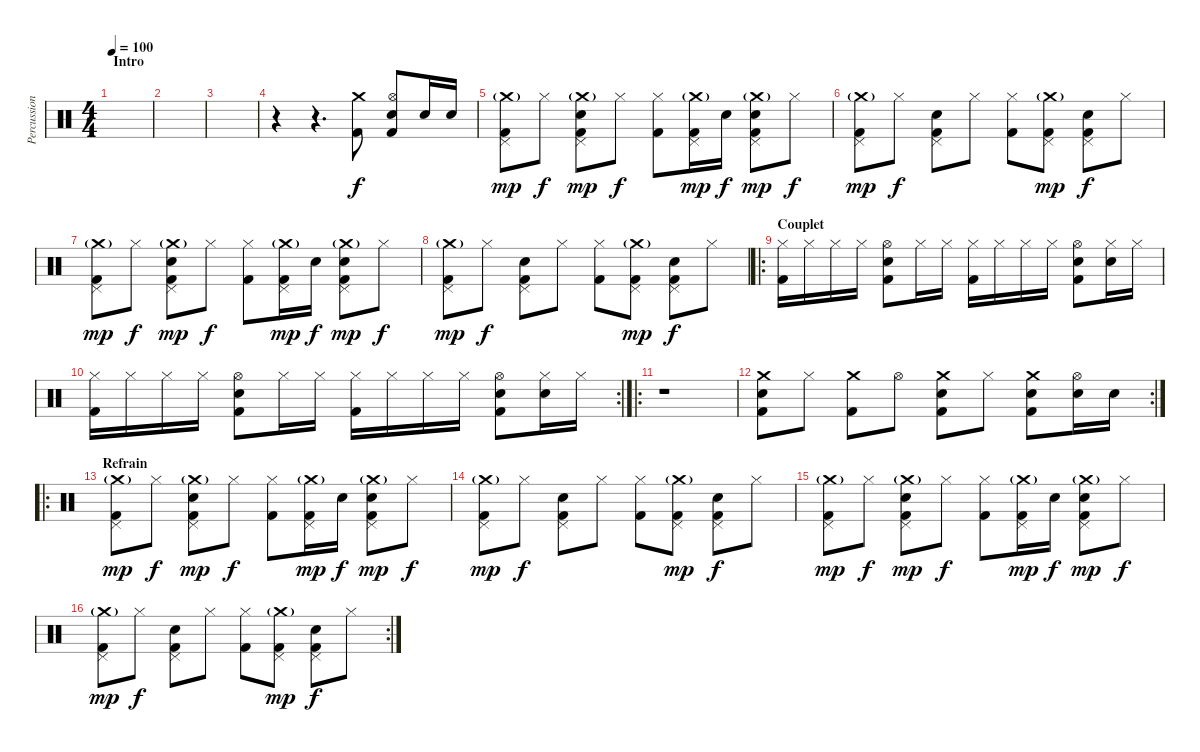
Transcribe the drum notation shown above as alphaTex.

\track ("Percussions" "Percussion") {instrument percussion}
\staff {score}
\articulation defaults
\ts (4 4)
\section ("" "Intro")
\tempo 100
\clef neutral
\ks c
|
|
|
r.4 r.4{d} ("Crash medium (hit)" "Kick (hit) 2").8 ("Hi-Hat (open)" "Electric Snare (hit)" "Kick (hit) 2").8 "Electric Snare (hit)".16 "Electric Snare (hit)".16 |
("Crash medium (hit)"{g} "Pedal Hi-Hat (hit)" "Kick (hit) 2").8{dy mp} "Hi-Hat (closed)".8{dy f} ("Crash medium (hit)"{g} "Pedal Hi-Hat (hit)" "Electric Snare (hit)" "Kick (hit) 2").8{dy mp} "Hi-Hat (closed)".8{dy f} ("Hi-Hat (closed)" "Kick (hit) 2").8 ("Crash medium (hit)"{g} "Pedal Hi-Hat (hit)" "Kick (hit) 2").16{dy mp} "Electric Snare (hit)".16{dy f} ("Crash medium (hit)"{g} "Pedal Hi-Hat (hit)" "Electric Snare (hit)" "Kick (hit) 2").8{dy mp} "Hi-Hat (closed)".8{dy f} |
("Crash medium (hit)"{g} "Pedal Hi-Hat (hit)" "Kick (hit) 2").8{dy mp} "Hi-Hat (closed)".8{dy f} ("Pedal Hi-Hat (hit)" "Electric Snare (hit)" "Kick (hit) 2").8 "Hi-Hat (closed)".8 ("Hi-Hat (closed)" "Kick (hit) 2").8 ("Crash medium (hit)"{g} "Pedal Hi-Hat (hit)" "Kick (hit) 2").8{dy mp} ("Pedal Hi-Hat (hit)" "Electric Snare (hit)" "Kick (hit) 2").8{dy f} "Hi-Hat (closed)".8 |
("Crash medium (hit)"{g} "Pedal Hi-Hat (hit)" "Kick (hit) 2").8{dy mp} "Hi-Hat (closed)".8{dy f} ("Crash medium (hit)"{g} "Pedal Hi-Hat (hit)" "Electric Snare (hit)" "Kick (hit) 2").8{dy mp} "Hi-Hat (closed)".8{dy f} ("Hi-Hat (closed)" "Kick (hit) 2").8 ("Crash medium (hit)"{g} "Pedal Hi-Hat (hit)" "Kick (hit) 2").16{dy mp} "Electric Snare (hit)".16{dy f} ("Crash medium (hit)"{g} "Pedal Hi-Hat (hit)" "Electric Snare (hit)" "Kick (hit) 2").8{dy mp} "Hi-Hat (closed)".8{dy f} |
("Crash medium (hit)"{g} "Pedal Hi-Hat (hit)" "Kick (hit) 2").8{dy mp} "Hi-Hat (closed)".8{dy f} ("Pedal Hi-Hat (hit)" "Electric Snare (hit)" "Kick (hit) 2").8 "Hi-Hat (closed)".8 ("Hi-Hat (closed)" "Kick (hit) 2").8 ("Crash medium (hit)"{g} "Pedal Hi-Hat (hit)" "Kick (hit) 2").8{dy mp} ("Pedal Hi-Hat (hit)" "Electric Snare (hit)" "Kick (hit) 2").8{dy f} "Hi-Hat (closed)".8 |
\ro
\section ("" "Couplet")
("Hi-Hat (closed)" "Kick (hit) 2").16 "Hi-Hat (closed)".16 "Hi-Hat (closed)".16 "Hi-Hat (closed)".16 ("Hi-Hat (open)" "Snare (hit) 2" "Kick (hit) 2").8 "Hi-Hat (closed)".16 "Hi-Hat (closed)".16 ("Hi-Hat (closed)" "Kick (hit) 2").16 "Hi-Hat (closed)".16 "Hi-Hat (closed)".16 "Hi-Hat (closed)".16 ("Hi-Hat (open)" "Snare (hit) 2" "Kick (hit) 2").8 ("Hi-Hat (closed)" "Snare (hit) 2").16 "Hi-Hat (closed)".16 |
\rc 2
("Hi-Hat (closed)" "Kick (hit) 2").16 "Hi-Hat (closed)".16 "Hi-Hat (closed)".16 "Hi-Hat (closed)".16 ("Hi-Hat (open)" "Snare (hit) 2" "Kick (hit) 2").8 "Hi-Hat (closed)".16 "Hi-Hat (closed)".16 ("Hi-Hat (closed)" "Kick (hit) 2").16 "Hi-Hat (closed)".16 "Hi-Hat (closed)".16 "Hi-Hat (closed)".16 ("Hi-Hat (open)" "Snare (hit) 2" "Kick (hit) 2").8 ("Hi-Hat (closed)" "Snare (hit) 2").16 "Hi-Hat (closed)".16 |
\ro
r.1 |
\rc 2
("Crash medium (hit)" "Kick (hit) 2" "Electric Snare (hit)").8 "Hi-Hat (closed)".8 ("Crash medium (hit)" "Kick (hit) 2").8 "Hi-Hat (open)".8 ("Crash medium (hit)" "Kick (hit) 2" "Electric Snare (hit)").8 "Hi-Hat (closed)".8 ("Crash medium (hit)" "Kick (hit) 2" "Electric Snare (hit)").8 ("Hi-Hat (open)" "Electric Snare (hit)").16 "Electric Snare (hit)".16 |
\ro
\section ("" "Refrain")
("Crash medium (hit)"{g} "Pedal Hi-Hat (hit)" "Kick (hit) 2").8{dy mp} "Hi-Hat (closed)".8{dy f} ("Crash medium (hit)"{g} "Pedal Hi-Hat (hit)" "Electric Snare (hit)" "Kick (hit) 2").8{dy mp} "Hi-Hat (closed)".8{dy f} ("Hi-Hat (closed)" "Kick (hit) 2").8 ("Crash medium (hit)"{g} "Pedal Hi-Hat (hit)" "Kick (hit) 2").16{dy mp} "Electric Snare (hit)".16{dy f} ("Crash medium (hit)"{g} "Pedal Hi-Hat (hit)" "Electric Snare (hit)" "Kick (hit) 2").8{dy mp} "Hi-Hat (closed)".8{dy f} |
("Crash medium (hit)"{g} "Pedal Hi-Hat (hit)" "Kick (hit) 2").8{dy mp} "Hi-Hat (closed)".8{dy f} ("Pedal Hi-Hat (hit)" "Electric Snare (hit)" "Kick (hit) 2").8 "Hi-Hat (closed)".8 ("Hi-Hat (closed)" "Kick (hit) 2").8 ("Crash medium (hit)"{g} "Pedal Hi-Hat (hit)" "Kick (hit) 2").8{dy mp} ("Pedal Hi-Hat (hit)" "Electric Snare (hit)" "Kick (hit) 2").8{dy f} "Hi-Hat (closed)".8 |
("Crash medium (hit)"{g} "Pedal Hi-Hat (hit)" "Kick (hit) 2").8{dy mp} "Hi-Hat (closed)".8{dy f} ("Crash medium (hit)"{g} "Pedal Hi-Hat (hit)" "Electric Snare (hit)" "Kick (hit) 2").8{dy mp} "Hi-Hat (closed)".8{dy f} ("Hi-Hat (closed)" "Kick (hit) 2").8 ("Crash medium (hit)"{g} "Pedal Hi-Hat (hit)" "Kick (hit) 2").16{dy mp} "Electric Snare (hit)".16{dy f} ("Crash medium (hit)"{g} "Pedal Hi-Hat (hit)" "Electric Snare (hit)" "Kick (hit) 2").8{dy mp} "Hi-Hat (closed)".8{dy f} |
\rc 2
("Crash medium (hit)"{g} "Pedal Hi-Hat (hit)" "Kick (hit) 2").8{dy mp} "Hi-Hat (closed)".8{dy f} ("Pedal Hi-Hat (hit)" "Electric Snare (hit)" "Kick (hit) 2").8 "Hi-Hat (closed)".8 ("Hi-Hat (closed)" "Kick (hit) 2").8 ("Crash medium (hit)"{g} "Pedal Hi-Hat (hit)" "Kick (hit) 2").8{dy mp} ("Pedal Hi-Hat (hit)" "Electric Snare (hit)" "Kick (hit) 2").8{dy f} "Hi-Hat (closed)".8
